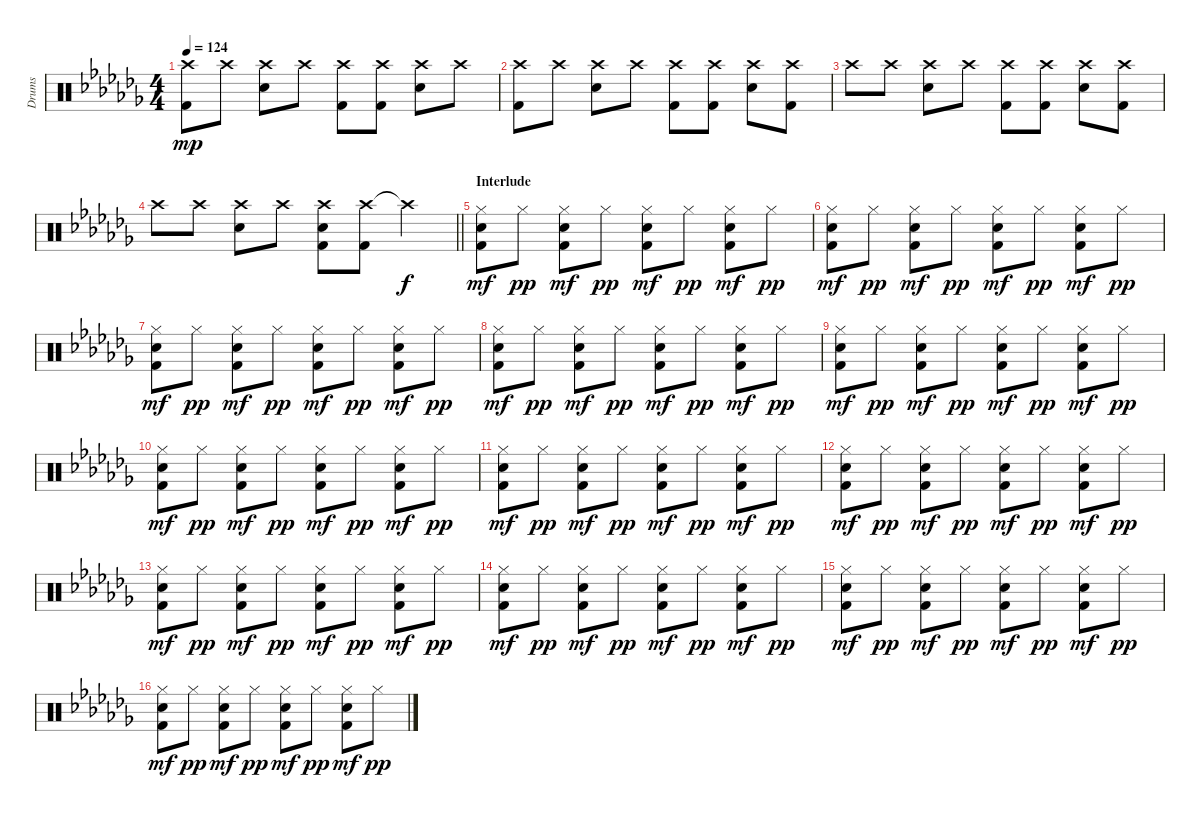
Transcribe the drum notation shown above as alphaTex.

\track ("Drums" "Drums") {instrument percussion}
\staff {score}
\articulation defaults
\ts (4 4)
\tempo 124
\clef neutral
\ks cb
("Crash high (hit)" "Kick (hit) 2").8{dy mp} "Crash high (hit)".8 ("Crash high (hit)" "Electric Snare (hit)").8 "Crash high (hit)".8 ("Crash high (hit)" "Kick (hit) 2").8 ("Crash high (hit)" "Kick (hit) 2").8 ("Crash high (hit)" "Electric Snare (hit)").8 "Crash high (hit)".8 |
("Crash high (hit)" "Kick (hit) 2").8 "Crash high (hit)".8 ("Crash high (hit)" "Electric Snare (hit)").8 "Crash high (hit)".8 ("Crash high (hit)" "Kick (hit) 2").8 ("Crash high (hit)" "Kick (hit) 2").8 ("Crash high (hit)" "Electric Snare (hit)").8 ("Crash high (hit)" "Kick (hit) 2").8 |
"Crash high (hit)".8 "Crash high (hit)".8 ("Crash high (hit)" "Electric Snare (hit)").8 "Crash high (hit)".8 ("Crash high (hit)" "Kick (hit) 2").8 ("Crash high (hit)" "Kick (hit) 2").8 ("Crash high (hit)" "Electric Snare (hit)").8 ("Crash high (hit)" "Kick (hit) 2").8 |
\barLineRight lightlight "Crash high (hit)".8 "Crash high (hit)".8
("Crash high (hit)" "Electric Snare (hit)").8 "Crash high (hit)".8 ("Crash high (hit)" "Electric Snare (hit)" "Kick (hit) 2").8 ("Crash high (hit)" "Kick (hit) 2").8 "Crash high (hit)"{t}.4{dy f} |
\section ("" "Interlude")
("Hi-Hat (closed)" "Electric Snare (hit)" "Kick (hit) 2").8{dy mf} "Hi-Hat (closed)".8{dy pp} ("Hi-Hat (closed)" "Electric Snare (hit)" "Kick (hit) 2").8{dy mf} "Hi-Hat (closed)".8{dy pp} ("Hi-Hat (closed)" "Electric Snare (hit)" "Kick (hit) 2").8{dy mf} "Hi-Hat (closed)".8{dy pp} ("Hi-Hat (closed)" "Electric Snare (hit)" "Kick (hit) 2").8{dy mf} "Hi-Hat (closed)".8{dy pp} |
("Hi-Hat (closed)" "Electric Snare (hit)" "Kick (hit) 2").8{dy mf} "Hi-Hat (closed)".8{dy pp} ("Hi-Hat (closed)" "Electric Snare (hit)" "Kick (hit) 2").8{dy mf} "Hi-Hat (closed)".8{dy pp} ("Hi-Hat (closed)" "Electric Snare (hit)" "Kick (hit) 2").8{dy mf} "Hi-Hat (closed)".8{dy pp} ("Hi-Hat (closed)" "Electric Snare (hit)" "Kick (hit) 2").8{dy mf} "Hi-Hat (closed)".8{dy pp} |
("Hi-Hat (closed)" "Electric Snare (hit)" "Kick (hit) 2").8{dy mf} "Hi-Hat (closed)".8{dy pp} ("Hi-Hat (closed)" "Electric Snare (hit)" "Kick (hit) 2").8{dy mf} "Hi-Hat (closed)".8{dy pp} ("Hi-Hat (closed)" "Electric Snare (hit)" "Kick (hit) 2").8{dy mf} "Hi-Hat (closed)".8{dy pp} ("Hi-Hat (closed)" "Electric Snare (hit)" "Kick (hit) 2").8{dy mf} "Hi-Hat (closed)".8{dy pp} |
("Hi-Hat (closed)" "Electric Snare (hit)" "Kick (hit) 2").8{dy mf} "Hi-Hat (closed)".8{dy pp} ("Hi-Hat (closed)" "Electric Snare (hit)" "Kick (hit) 2").8{dy mf} "Hi-Hat (closed)".8{dy pp} ("Hi-Hat (closed)" "Electric Snare (hit)" "Kick (hit) 2").8{dy mf} "Hi-Hat (closed)".8{dy pp} ("Hi-Hat (closed)" "Electric Snare (hit)" "Kick (hit) 2").8{dy mf} "Hi-Hat (closed)".8{dy pp} |
("Hi-Hat (closed)" "Electric Snare (hit)" "Kick (hit) 2").8{dy mf} "Hi-Hat (closed)".8{dy pp} ("Hi-Hat (closed)" "Electric Snare (hit)" "Kick (hit) 2").8{dy mf} "Hi-Hat (closed)".8{dy pp} ("Hi-Hat (closed)" "Electric Snare (hit)" "Kick (hit) 2").8{dy mf} "Hi-Hat (closed)".8{dy pp} ("Hi-Hat (closed)" "Electric Snare (hit)" "Kick (hit) 2").8{dy mf} "Hi-Hat (closed)".8{dy pp} |
("Hi-Hat (closed)" "Electric Snare (hit)" "Kick (hit) 2").8{dy mf} "Hi-Hat (closed)".8{dy pp} ("Hi-Hat (closed)" "Electric Snare (hit)" "Kick (hit) 2").8{dy mf} "Hi-Hat (closed)".8{dy pp} ("Hi-Hat (closed)" "Electric Snare (hit)" "Kick (hit) 2").8{dy mf} "Hi-Hat (closed)".8{dy pp} ("Hi-Hat (closed)" "Electric Snare (hit)" "Kick (hit) 2").8{dy mf} "Hi-Hat (closed)".8{dy pp} |
("Hi-Hat (closed)" "Electric Snare (hit)" "Kick (hit) 2").8{dy mf} "Hi-Hat (closed)".8{dy pp} ("Hi-Hat (closed)" "Electric Snare (hit)" "Kick (hit) 2").8{dy mf} "Hi-Hat (closed)".8{dy pp} ("Hi-Hat (closed)" "Electric Snare (hit)" "Kick (hit) 2").8{dy mf} "Hi-Hat (closed)".8{dy pp} ("Hi-Hat (closed)" "Electric Snare (hit)" "Kick (hit) 2").8{dy mf} "Hi-Hat (closed)".8{dy pp} |
("Hi-Hat (closed)" "Electric Snare (hit)" "Kick (hit) 2").8{dy mf} "Hi-Hat (closed)".8{dy pp} ("Hi-Hat (closed)" "Electric Snare (hit)" "Kick (hit) 2").8{dy mf} "Hi-Hat (closed)".8{dy pp} ("Hi-Hat (closed)" "Electric Snare (hit)" "Kick (hit) 2").8{dy mf} "Hi-Hat (closed)".8{dy pp} ("Hi-Hat (closed)" "Electric Snare (hit)" "Kick (hit) 2").8{dy mf} "Hi-Hat (closed)".8{dy pp} |
("Hi-Hat (closed)" "Electric Snare (hit)" "Kick (hit) 2").8{dy mf} "Hi-Hat (closed)".8{dy pp} ("Hi-Hat (closed)" "Electric Snare (hit)" "Kick (hit) 2").8{dy mf} "Hi-Hat (closed)".8{dy pp} ("Hi-Hat (closed)" "Electric Snare (hit)" "Kick (hit) 2").8{dy mf} "Hi-Hat (closed)".8{dy pp} ("Hi-Hat (closed)" "Electric Snare (hit)" "Kick (hit) 2").8{dy mf} "Hi-Hat (closed)".8{dy pp} |
("Hi-Hat (closed)" "Electric Snare (hit)" "Kick (hit) 2").8{dy mf} "Hi-Hat (closed)".8{dy pp} ("Hi-Hat (closed)" "Electric Snare (hit)" "Kick (hit) 2").8{dy mf} "Hi-Hat (closed)".8{dy pp} ("Hi-Hat (closed)" "Electric Snare (hit)" "Kick (hit) 2").8{dy mf} "Hi-Hat (closed)".8{dy pp} ("Hi-Hat (closed)" "Electric Snare (hit)" "Kick (hit) 2").8{dy mf} "Hi-Hat (closed)".8{dy pp} |
("Hi-Hat (closed)" "Electric Snare (hit)" "Kick (hit) 2").8{dy mf} "Hi-Hat (closed)".8{dy pp} ("Hi-Hat (closed)" "Electric Snare (hit)" "Kick (hit) 2").8{dy mf} "Hi-Hat (closed)".8{dy pp} ("Hi-Hat (closed)" "Electric Snare (hit)" "Kick (hit) 2").8{dy mf} "Hi-Hat (closed)".8{dy pp} ("Hi-Hat (closed)" "Electric Snare (hit)" "Kick (hit) 2").8{dy mf} "Hi-Hat (closed)".8{dy pp} |
("Hi-Hat (closed)" "Electric Snare (hit)" "Kick (hit) 2").8{dy mf} "Hi-Hat (closed)".8{dy pp} ("Hi-Hat (closed)" "Electric Snare (hit)" "Kick (hit) 2").8{dy mf} "Hi-Hat (closed)".8{dy pp} ("Hi-Hat (closed)" "Electric Snare (hit)" "Kick (hit) 2").8{dy mf} "Hi-Hat (closed)".8{dy pp} ("Hi-Hat (closed)" "Electric Snare (hit)" "Kick (hit) 2").8{dy mf} "Hi-Hat (closed)".8{dy pp}
